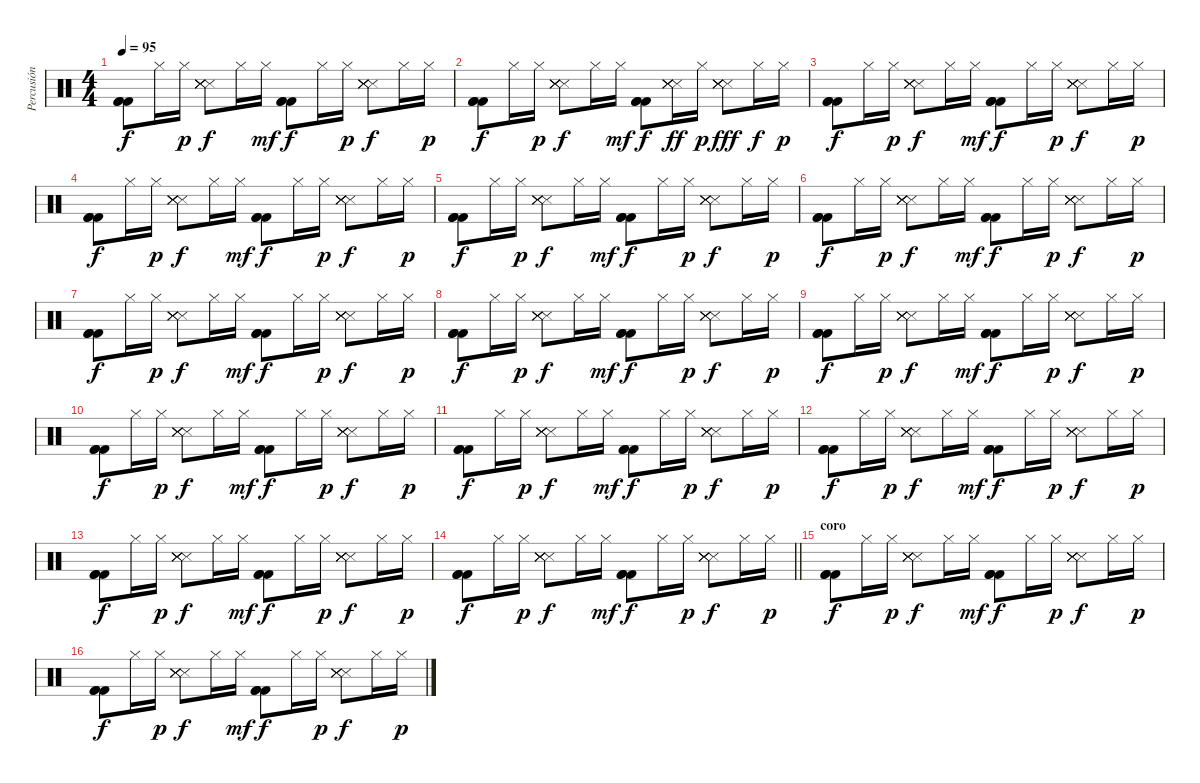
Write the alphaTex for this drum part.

\track ("Percusión" "Percusión") {instrument percussion}
\staff
\articulation defaults
\ts (4 4)
\tempo 95
\clef neutral
\ks c
("Kick (hit) 2" "Kick (hit) 2" "Kick (hit) 2").8{dy f} "Hi-Hat (closed)".16 "Hi-Hat (closed)".16{dy p} ("Metronome (hit)" "Metronome (hit)" "Metronome (hit)" "Metronome (hit)" "Metronome (hit)").8{dy f} "Hi-Hat (closed)".16 "Hi-Hat (closed)".16{dy mf} ("Kick (hit) 2" "Kick (hit) 2" "Kick (hit) 2").8{dy f} "Hi-Hat (closed)".16 "Hi-Hat (closed)".16{dy p} ("Metronome (hit)" "Metronome (hit)" "Metronome (hit)" "Metronome (hit)" "Metronome (hit)").8{dy f} "Hi-Hat (closed)".16 "Hi-Hat (closed)".16{dy p} |
("Kick (hit) 2" "Kick (hit) 2" "Kick (hit) 2").8{dy f} "Hi-Hat (closed)".16 "Hi-Hat (closed)".16{dy p} ("Metronome (hit)" "Metronome (hit)" "Metronome (hit)" "Metronome (hit)" "Metronome (hit)").8{dy f} "Hi-Hat (closed)".16 "Hi-Hat (closed)".16{dy mf} ("Kick (hit) 2" "Kick (hit) 2" "Kick (hit) 2").8{dy f} ("Metronome (hit)" "Metronome (hit)" "Metronome (hit)" "Metronome (hit)" "Metronome (hit)").16{dy ff} "Hi-Hat (closed)".16{dy p} ("Metronome (hit)" "Metronome (hit)" "Metronome (hit)" "Metronome (hit)" "Metronome (hit)").8{dy fff} "Hi-Hat (closed)".16{dy f} "Hi-Hat (closed)".16{dy p} |
("Kick (hit) 2" "Kick (hit) 2" "Kick (hit) 2").8{dy f} "Hi-Hat (closed)".16 "Hi-Hat (closed)".16{dy p} ("Metronome (hit)" "Metronome (hit)" "Metronome (hit)" "Metronome (hit)" "Metronome (hit)").8{dy f} "Hi-Hat (closed)".16 "Hi-Hat (closed)".16{dy mf} ("Kick (hit) 2" "Kick (hit) 2" "Kick (hit) 2").8{dy f} "Hi-Hat (closed)".16 "Hi-Hat (closed)".16{dy p} ("Metronome (hit)" "Metronome (hit)" "Metronome (hit)" "Metronome (hit)" "Metronome (hit)").8{dy f} "Hi-Hat (closed)".16 "Hi-Hat (closed)".16{dy p} |
("Kick (hit) 2" "Kick (hit) 2" "Kick (hit) 2").8{dy f} "Hi-Hat (closed)".16 "Hi-Hat (closed)".16{dy p} ("Metronome (hit)" "Metronome (hit)" "Metronome (hit)" "Metronome (hit)" "Metronome (hit)").8{dy f} "Hi-Hat (closed)".16 "Hi-Hat (closed)".16{dy mf} ("Kick (hit) 2" "Kick (hit) 2" "Kick (hit) 2").8{dy f} "Hi-Hat (closed)".16 "Hi-Hat (closed)".16{dy p} ("Metronome (hit)" "Metronome (hit)" "Metronome (hit)" "Metronome (hit)" "Metronome (hit)").8{dy f} "Hi-Hat (closed)".16 "Hi-Hat (closed)".16{dy p} |
("Kick (hit) 2" "Kick (hit) 2" "Kick (hit) 2").8{dy f} "Hi-Hat (closed)".16 "Hi-Hat (closed)".16{dy p} ("Metronome (hit)" "Metronome (hit)" "Metronome (hit)" "Metronome (hit)" "Metronome (hit)").8{dy f} "Hi-Hat (closed)".16 "Hi-Hat (closed)".16{dy mf} ("Kick (hit) 2" "Kick (hit) 2" "Kick (hit) 2").8{dy f} "Hi-Hat (closed)".16 "Hi-Hat (closed)".16{dy p} ("Metronome (hit)" "Metronome (hit)" "Metronome (hit)" "Metronome (hit)" "Metronome (hit)").8{dy f} "Hi-Hat (closed)".16 "Hi-Hat (closed)".16{dy p} |
("Kick (hit) 2" "Kick (hit) 2" "Kick (hit) 2").8{dy f} "Hi-Hat (closed)".16 "Hi-Hat (closed)".16{dy p} ("Metronome (hit)" "Metronome (hit)" "Metronome (hit)" "Metronome (hit)" "Metronome (hit)").8{dy f} "Hi-Hat (closed)".16 "Hi-Hat (closed)".16{dy mf} ("Kick (hit) 2" "Kick (hit) 2" "Kick (hit) 2").8{dy f} "Hi-Hat (closed)".16 "Hi-Hat (closed)".16{dy p} ("Metronome (hit)" "Metronome (hit)" "Metronome (hit)" "Metronome (hit)" "Metronome (hit)").8{dy f} "Hi-Hat (closed)".16 "Hi-Hat (closed)".16{dy p} |
("Kick (hit) 2" "Kick (hit) 2" "Kick (hit) 2").8{dy f} "Hi-Hat (closed)".16 "Hi-Hat (closed)".16{dy p} ("Metronome (hit)" "Metronome (hit)" "Metronome (hit)" "Metronome (hit)" "Metronome (hit)").8{dy f} "Hi-Hat (closed)".16 "Hi-Hat (closed)".16{dy mf} ("Kick (hit) 2" "Kick (hit) 2" "Kick (hit) 2").8{dy f} "Hi-Hat (closed)".16 "Hi-Hat (closed)".16{dy p} ("Metronome (hit)" "Metronome (hit)" "Metronome (hit)" "Metronome (hit)" "Metronome (hit)").8{dy f} "Hi-Hat (closed)".16 "Hi-Hat (closed)".16{dy p} |
("Kick (hit) 2" "Kick (hit) 2" "Kick (hit) 2").8{dy f} "Hi-Hat (closed)".16 "Hi-Hat (closed)".16{dy p} ("Metronome (hit)" "Metronome (hit)" "Metronome (hit)" "Metronome (hit)" "Metronome (hit)").8{dy f} "Hi-Hat (closed)".16 "Hi-Hat (closed)".16{dy mf} ("Kick (hit) 2" "Kick (hit) 2" "Kick (hit) 2").8{dy f} "Hi-Hat (closed)".16 "Hi-Hat (closed)".16{dy p} ("Metronome (hit)" "Metronome (hit)" "Metronome (hit)" "Metronome (hit)" "Metronome (hit)").8{dy f} "Hi-Hat (closed)".16 "Hi-Hat (closed)".16{dy p} |
("Kick (hit) 2" "Kick (hit) 2" "Kick (hit) 2").8{dy f} "Hi-Hat (closed)".16 "Hi-Hat (closed)".16{dy p} ("Metronome (hit)" "Metronome (hit)" "Metronome (hit)" "Metronome (hit)" "Metronome (hit)").8{dy f} "Hi-Hat (closed)".16 "Hi-Hat (closed)".16{dy mf} ("Kick (hit) 2" "Kick (hit) 2" "Kick (hit) 2").8{dy f} "Hi-Hat (closed)".16 "Hi-Hat (closed)".16{dy p} ("Metronome (hit)" "Metronome (hit)" "Metronome (hit)" "Metronome (hit)" "Metronome (hit)").8{dy f} "Hi-Hat (closed)".16 "Hi-Hat (closed)".16{dy p} |
("Kick (hit) 2" "Kick (hit) 2" "Kick (hit) 2").8{dy f} "Hi-Hat (closed)".16 "Hi-Hat (closed)".16{dy p} ("Metronome (hit)" "Metronome (hit)" "Metronome (hit)" "Metronome (hit)" "Metronome (hit)").8{dy f} "Hi-Hat (closed)".16 "Hi-Hat (closed)".16{dy mf} ("Kick (hit) 2" "Kick (hit) 2" "Kick (hit) 2").8{dy f} "Hi-Hat (closed)".16 "Hi-Hat (closed)".16{dy p} ("Metronome (hit)" "Metronome (hit)" "Metronome (hit)" "Metronome (hit)" "Metronome (hit)").8{dy f} "Hi-Hat (closed)".16 "Hi-Hat (closed)".16{dy p} |
("Kick (hit) 2" "Kick (hit) 2" "Kick (hit) 2").8{dy f} "Hi-Hat (closed)".16 "Hi-Hat (closed)".16{dy p} ("Metronome (hit)" "Metronome (hit)" "Metronome (hit)" "Metronome (hit)" "Metronome (hit)").8{dy f} "Hi-Hat (closed)".16 "Hi-Hat (closed)".16{dy mf} ("Kick (hit) 2" "Kick (hit) 2" "Kick (hit) 2").8{dy f} "Hi-Hat (closed)".16 "Hi-Hat (closed)".16{dy p} ("Metronome (hit)" "Metronome (hit)" "Metronome (hit)" "Metronome (hit)" "Metronome (hit)").8{dy f} "Hi-Hat (closed)".16 "Hi-Hat (closed)".16{dy p} |
("Kick (hit) 2" "Kick (hit) 2" "Kick (hit) 2").8{dy f} "Hi-Hat (closed)".16 "Hi-Hat (closed)".16{dy p} ("Metronome (hit)" "Metronome (hit)" "Metronome (hit)" "Metronome (hit)" "Metronome (hit)").8{dy f} "Hi-Hat (closed)".16 "Hi-Hat (closed)".16{dy mf} ("Kick (hit) 2" "Kick (hit) 2" "Kick (hit) 2").8{dy f} "Hi-Hat (closed)".16 "Hi-Hat (closed)".16{dy p} ("Metronome (hit)" "Metronome (hit)" "Metronome (hit)" "Metronome (hit)" "Metronome (hit)").8{dy f} "Hi-Hat (closed)".16 "Hi-Hat (closed)".16{dy p} |
("Kick (hit) 2" "Kick (hit) 2" "Kick (hit) 2").8{dy f} "Hi-Hat (closed)".16 "Hi-Hat (closed)".16{dy p} ("Metronome (hit)" "Metronome (hit)" "Metronome (hit)" "Metronome (hit)" "Metronome (hit)").8{dy f} "Hi-Hat (closed)".16 "Hi-Hat (closed)".16{dy mf} ("Kick (hit) 2" "Kick (hit) 2" "Kick (hit) 2").8{dy f} "Hi-Hat (closed)".16 "Hi-Hat (closed)".16{dy p} ("Metronome (hit)" "Metronome (hit)" "Metronome (hit)" "Metronome (hit)" "Metronome (hit)").8{dy f} "Hi-Hat (closed)".16 "Hi-Hat (closed)".16{dy p} |
\barLineRight lightlight
("Kick (hit) 2" "Kick (hit) 2" "Kick (hit) 2").8{dy f} "Hi-Hat (closed)".16 "Hi-Hat (closed)".16{dy p} ("Metronome (hit)" "Metronome (hit)" "Metronome (hit)" "Metronome (hit)" "Metronome (hit)").8{dy f} "Hi-Hat (closed)".16 "Hi-Hat (closed)".16{dy mf} ("Kick (hit) 2" "Kick (hit) 2" "Kick (hit) 2").8{dy f} "Hi-Hat (closed)".16 "Hi-Hat (closed)".16{dy p} ("Metronome (hit)" "Metronome (hit)" "Metronome (hit)" "Metronome (hit)" "Metronome (hit)").8{dy f} "Hi-Hat (closed)".16 "Hi-Hat (closed)".16{dy p} |
\section ("" "coro")
("Kick (hit) 2" "Kick (hit) 2" "Kick (hit) 2").8{dy f} "Hi-Hat (closed)".16 "Hi-Hat (closed)".16{dy p} ("Metronome (hit)" "Metronome (hit)" "Metronome (hit)" "Metronome (hit)" "Metronome (hit)").8{dy f} "Hi-Hat (closed)".16 "Hi-Hat (closed)".16{dy mf} ("Kick (hit) 2" "Kick (hit) 2" "Kick (hit) 2").8{dy f} "Hi-Hat (closed)".16 "Hi-Hat (closed)".16{dy p} ("Metronome (hit)" "Metronome (hit)" "Metronome (hit)" "Metronome (hit)" "Metronome (hit)").8{dy f} "Hi-Hat (closed)".16 "Hi-Hat (closed)".16{dy p} |
("Kick (hit) 2" "Kick (hit) 2" "Kick (hit) 2").8{dy f} "Hi-Hat (closed)".16 "Hi-Hat (closed)".16{dy p} ("Metronome (hit)" "Metronome (hit)" "Metronome (hit)" "Metronome (hit)" "Metronome (hit)").8{dy f} "Hi-Hat (closed)".16 "Hi-Hat (closed)".16{dy mf} ("Kick (hit) 2" "Kick (hit) 2" "Kick (hit) 2").8{dy f} "Hi-Hat (closed)".16 "Hi-Hat (closed)".16{dy p} ("Metronome (hit)" "Metronome (hit)" "Metronome (hit)" "Metronome (hit)" "Metronome (hit)").8{dy f} "Hi-Hat (closed)".16 "Hi-Hat (closed)".16{dy p}
